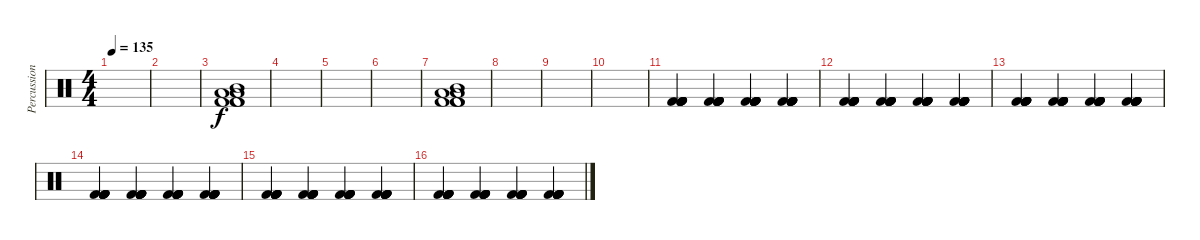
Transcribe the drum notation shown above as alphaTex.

\track ("Percussion" "Percussion") {instrument percussion}
\staff {score}
\articulation defaults
\ts (4 4)
\tempo 135
\clef neutral
\ks c
|
|
("Low Floor Tom (hit)" "Mid Tom (hit)" "Low Floor Tom (hit)" "Kick (hit) 2" "Kick (hit) 2" "Kick (hit) 2").1 |
|
|
|
("Low Floor Tom (hit)" "Mid Tom (hit)" "Low Floor Tom (hit)" "Kick (hit) 2" "Kick (hit) 2" "Kick (hit) 2").1 |
|
|
|
("Kick (hit) 2" "Kick (hit) 2" "Kick (hit) 2" "Kick (hit) 2" "Kick (hit) 2" "Kick (hit) 2").4 ("Kick (hit) 2" "Kick (hit) 2" "Kick (hit) 2" "Kick (hit) 2" "Kick (hit) 2" "Kick (hit) 2").4 ("Kick (hit) 2" "Kick (hit) 2" "Kick (hit) 2" "Kick (hit) 2" "Kick (hit) 2" "Kick (hit) 2").4 ("Kick (hit) 2" "Kick (hit) 2" "Kick (hit) 2" "Kick (hit) 2" "Kick (hit) 2" "Kick (hit) 2").4 |
("Kick (hit) 2" "Kick (hit) 2" "Kick (hit) 2" "Kick (hit) 2" "Kick (hit) 2" "Kick (hit) 2").4 ("Kick (hit) 2" "Kick (hit) 2" "Kick (hit) 2" "Kick (hit) 2" "Kick (hit) 2" "Kick (hit) 2").4 ("Kick (hit) 2" "Kick (hit) 2" "Kick (hit) 2" "Kick (hit) 2" "Kick (hit) 2" "Kick (hit) 2").4 ("Kick (hit) 2" "Kick (hit) 2" "Kick (hit) 2" "Kick (hit) 2" "Kick (hit) 2" "Kick (hit) 2").4 |
("Kick (hit) 2" "Kick (hit) 2" "Kick (hit) 2" "Kick (hit) 2" "Kick (hit) 2" "Kick (hit) 2").4 ("Kick (hit) 2" "Kick (hit) 2" "Kick (hit) 2" "Kick (hit) 2" "Kick (hit) 2" "Kick (hit) 2").4 ("Kick (hit) 2" "Kick (hit) 2" "Kick (hit) 2" "Kick (hit) 2" "Kick (hit) 2" "Kick (hit) 2").4 ("Kick (hit) 2" "Kick (hit) 2" "Kick (hit) 2" "Kick (hit) 2" "Kick (hit) 2" "Kick (hit) 2").4 |
("Kick (hit) 2" "Kick (hit) 2" "Kick (hit) 2" "Kick (hit) 2" "Kick (hit) 2" "Kick (hit) 2").4 ("Kick (hit) 2" "Kick (hit) 2" "Kick (hit) 2" "Kick (hit) 2" "Kick (hit) 2" "Kick (hit) 2").4 ("Kick (hit) 2" "Kick (hit) 2" "Kick (hit) 2" "Kick (hit) 2" "Kick (hit) 2" "Kick (hit) 2").4 ("Kick (hit) 2" "Kick (hit) 2" "Kick (hit) 2" "Kick (hit) 2" "Kick (hit) 2" "Kick (hit) 2").4 |
("Kick (hit) 2" "Kick (hit) 2" "Kick (hit) 2" "Kick (hit) 2" "Kick (hit) 2" "Kick (hit) 2").4 ("Kick (hit) 2" "Kick (hit) 2" "Kick (hit) 2" "Kick (hit) 2" "Kick (hit) 2" "Kick (hit) 2").4 ("Kick (hit) 2" "Kick (hit) 2" "Kick (hit) 2" "Kick (hit) 2" "Kick (hit) 2" "Kick (hit) 2").4 ("Kick (hit) 2" "Kick (hit) 2" "Kick (hit) 2" "Kick (hit) 2" "Kick (hit) 2" "Kick (hit) 2").4 |
("Kick (hit) 2" "Kick (hit) 2" "Kick (hit) 2" "Kick (hit) 2" "Kick (hit) 2" "Kick (hit) 2").4 ("Kick (hit) 2" "Kick (hit) 2" "Kick (hit) 2" "Kick (hit) 2" "Kick (hit) 2" "Kick (hit) 2").4 ("Kick (hit) 2" "Kick (hit) 2" "Kick (hit) 2" "Kick (hit) 2" "Kick (hit) 2" "Kick (hit) 2").4 ("Kick (hit) 2" "Kick (hit) 2" "Kick (hit) 2" "Kick (hit) 2" "Kick (hit) 2" "Kick (hit) 2").4
